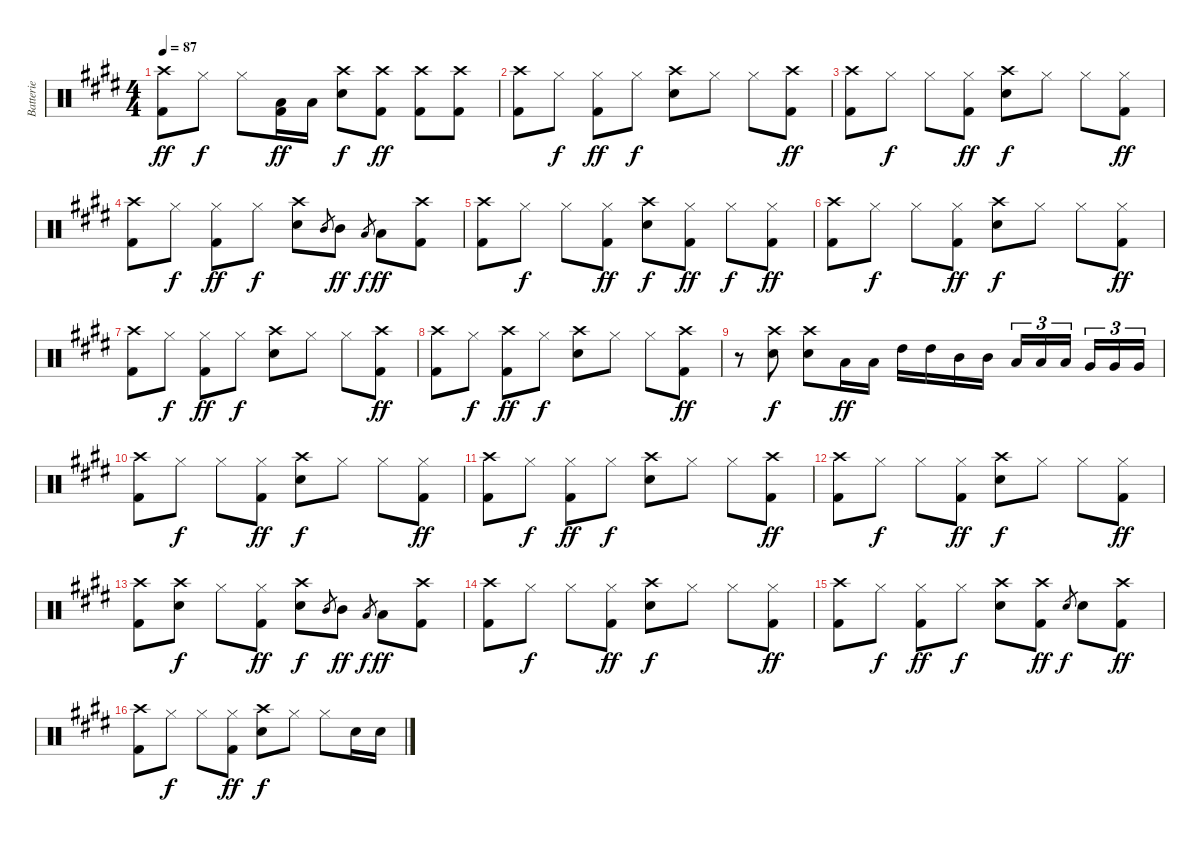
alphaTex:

\track ("Batterie" "Batterie") {instrument percussion}
\staff {score}
\articulation defaults
\ts (4 4)
\tempo 87
\clef neutral
\ks e
("Crash high (hit)" "Kick (hit) 2").8{dy ff} "Hi-Hat (closed)".8{dy f} "Hi-Hat (closed)".8 ("Low Tom (hit)" "Kick (hit) 2").16{dy ff} "Low Tom (hit)".16 ("Crash high (hit)" "Snare (hit) 2").8{dy f} ("Crash high (hit)" "Kick (hit) 2").8{dy ff} ("Crash high (hit)" "Kick (hit) 2").8 ("Crash high (hit)" "Kick (hit) 2").8 |
("Crash high (hit)" "Kick (hit) 2").8 "Hi-Hat (closed)".8{dy f} ("Hi-Hat (closed)" "Kick (hit) 2").8{dy ff} "Hi-Hat (closed)".8{dy f} ("Crash high (hit)" "Snare (hit) 2").8 "Hi-Hat (closed)".8 "Hi-Hat (closed)".8 ("Crash high (hit)" "Kick (hit) 2").8{dy ff} |
("Crash high (hit)" "Kick (hit) 2").8 "Hi-Hat (closed)".8{dy f} "Hi-Hat (closed)".8 ("Hi-Hat (closed)" "Kick (hit) 2").8{dy ff} ("Crash high (hit)" "Snare (hit) 2").8{dy f} "Hi-Hat (closed)".8 "Hi-Hat (closed)".8 ("Hi-Hat (closed)" "Kick (hit) 2").8{dy ff} |
("Crash high (hit)" "Kick (hit) 2").8 "Hi-Hat (closed)".8{dy f} ("Hi-Hat (closed)" "Kick (hit) 2").8{dy ff} "Hi-Hat (closed)".8{dy f} ("Crash high (hit)" "Snare (hit) 2").8 "Mid Tom (hit)".8{gr} "Mid Tom (hit)".8{dy ff} "Low Tom (hit)".8{gr dy f} "Low Tom (hit)".8{dy ff} ("Crash high (hit)" "Kick (hit) 2").8 |
("Crash high (hit)" "Kick (hit) 2").8 "Hi-Hat (closed)".8{dy f} "Hi-Hat (closed)".8 ("Hi-Hat (closed)" "Kick (hit) 2").8{dy ff} ("Crash high (hit)" "Snare (hit) 2").8{dy f} ("Hi-Hat (closed)" "Kick (hit) 2").8{dy ff} "Hi-Hat (closed)".8{dy f} ("Hi-Hat (closed)" "Kick (hit) 2").8{dy ff} |
("Crash high (hit)" "Kick (hit) 2").8 "Hi-Hat (closed)".8{dy f} "Hi-Hat (closed)".8 ("Hi-Hat (closed)" "Kick (hit) 2").8{dy ff} ("Crash high (hit)" "Snare (hit) 2").8{dy f} "Hi-Hat (closed)".8 "Hi-Hat (closed)".8 ("Hi-Hat (closed)" "Kick (hit) 2").8{dy ff} |
("Crash high (hit)" "Kick (hit) 2").8 "Hi-Hat (closed)".8{dy f} ("Hi-Hat (closed)" "Kick (hit) 2").8{dy ff} "Hi-Hat (closed)".8{dy f} ("Crash high (hit)" "Snare (hit) 2").8 "Hi-Hat (closed)".8 "Hi-Hat (closed)".8 ("Crash high (hit)" "Kick (hit) 2").8{dy ff} |
("Crash high (hit)" "Kick (hit) 2").8 "Hi-Hat (closed)".8{dy f} ("Crash high (hit)" "Kick (hit) 2").8{dy ff} "Hi-Hat (closed)".8{dy f} ("Crash high (hit)" "Snare (hit) 2").8 "Hi-Hat (closed)".8 "Hi-Hat (closed)".8 ("Crash high (hit)" "Kick (hit) 2").8{dy ff} |
r.8 ("Crash high (hit)" "Snare (hit) 2").8{dy f} ("Crash high (hit)" "Snare (hit) 2").8 "Low Tom (hit)".16{dy ff} "Low Tom (hit)".16 "High Tom (hit)".16 "High Tom (hit)".16 "Mid Tom (hit)".16 "Mid Tom (hit)".16 "Low Tom (hit)".16{tu (3 2)} "Low Tom (hit)".16{tu (3 2)} "Low Tom (hit)".16{tu (3 2)} "Very Low Tom (hit)".16{tu (3 2)} "Very Low Tom (hit)".16{tu (3 2)} "Very Low Tom (hit)".16{tu (3 2)} |
("Crash high (hit)" "Kick (hit) 2").8 "Hi-Hat (closed)".8{dy f} "Hi-Hat (closed)".8 ("Hi-Hat (closed)" "Kick (hit) 2").8{dy ff} ("Crash high (hit)" "Snare (hit) 2").8{dy f} "Hi-Hat (closed)".8 "Hi-Hat (closed)".8 ("Hi-Hat (closed)" "Kick (hit) 2").8{dy ff} |
("Crash high (hit)" "Kick (hit) 2").8 "Hi-Hat (closed)".8{dy f} ("Hi-Hat (closed)" "Kick (hit) 2").8{dy ff} "Hi-Hat (closed)".8{dy f} ("Crash high (hit)" "Snare (hit) 2").8 "Hi-Hat (closed)".8 "Hi-Hat (closed)".8 ("Crash high (hit)" "Kick (hit) 2").8{dy ff} |
("Crash high (hit)" "Kick (hit) 2").8 "Hi-Hat (closed)".8{dy f} "Hi-Hat (closed)".8 ("Hi-Hat (closed)" "Kick (hit) 2").8{dy ff} ("Crash high (hit)" "Snare (hit) 2").8{dy f} "Hi-Hat (closed)".8 "Hi-Hat (closed)".8 ("Hi-Hat (closed)" "Kick (hit) 2").8{dy ff} |
("Crash high (hit)" "Kick (hit) 2").8 ("Crash high (hit)" "Snare (hit) 2").8{dy f} "Hi-Hat (closed)".8 ("Hi-Hat (closed)" "Kick (hit) 2").8{dy ff} ("Crash high (hit)" "Snare (hit) 2").8{dy f} "Mid Tom (hit)".8{gr} "Mid Tom (hit)".8{dy ff} "Low Tom (hit)".8{gr dy f} "Low Tom (hit)".8{dy ff} ("Crash high (hit)" "Kick (hit) 2").8 |
("Crash high (hit)" "Kick (hit) 2").8 "Hi-Hat (closed)".8{dy f} "Hi-Hat (closed)".8 ("Hi-Hat (closed)" "Kick (hit) 2").8{dy ff} ("Crash high (hit)" "Snare (hit) 2").8{dy f} "Hi-Hat (closed)".8 "Hi-Hat (closed)".8 ("Hi-Hat (closed)" "Kick (hit) 2").8{dy ff} |
("Crash high (hit)" "Kick (hit) 2").8 "Hi-Hat (closed)".8{dy f} ("Hi-Hat (closed)" "Kick (hit) 2").8{dy ff} "Hi-Hat (closed)".8{dy f} ("Crash high (hit)" "Snare (hit) 2").8 ("Crash high (hit)" "Kick (hit) 2").8{dy ff} "Snare (hit) 2".8{gr dy f} "Snare (hit) 2".8 ("Crash high (hit)" "Kick (hit) 2").8{dy ff} |
("Crash high (hit)" "Kick (hit) 2").8 "Hi-Hat (closed)".8{dy f} "Hi-Hat (closed)".8 ("Hi-Hat (closed)" "Kick (hit) 2").8{dy ff} ("Crash high (hit)" "Snare (hit) 2").8{dy f} "Hi-Hat (closed)".8 "Hi-Hat (closed)".8 "Snare (hit) 2".16 "Snare (hit) 2".16
